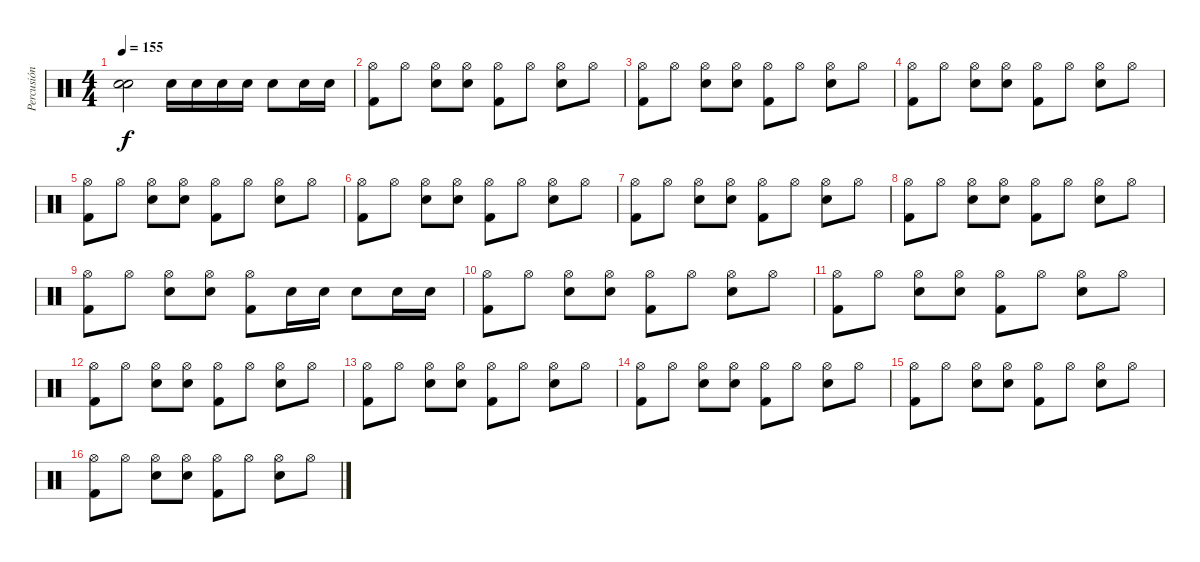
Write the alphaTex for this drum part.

\track ("Percusión" "Percusión") {instrument percussion}
\staff {score}
\articulation defaults
\ts (4 4)
\tempo 155
\clef neutral
\ks c
("Snare (hit)"{t} "Snare (hit)"{t}).2{dy f} "Electric Snare (hit)".16 "Electric Snare (hit)".16 "Electric Snare (hit)".16 "Electric Snare (hit)".16 "Electric Snare (hit)".8 "Electric Snare (hit)".16 "Electric Snare (hit)".16 |
("Hi-Hat (open)" "Kick (hit) 2").8 "Hi-Hat (open)".8 ("Hi-Hat (open)" "Electric Snare (hit)").8 ("Hi-Hat (open)" "Electric Snare (hit)").8 ("Hi-Hat (open)" "Kick (hit) 2").8 "Hi-Hat (open)".8 ("Hi-Hat (open)" "Electric Snare (hit)").8 "Hi-Hat (open)".8 |
("Hi-Hat (open)" "Kick (hit) 2").8 "Hi-Hat (open)".8 ("Hi-Hat (open)" "Electric Snare (hit)").8 ("Hi-Hat (open)" "Electric Snare (hit)").8 ("Hi-Hat (open)" "Kick (hit) 2").8 "Hi-Hat (open)".8 ("Hi-Hat (open)" "Electric Snare (hit)").8 "Hi-Hat (open)".8 |
("Hi-Hat (open)" "Kick (hit) 2").8 "Hi-Hat (open)".8 ("Hi-Hat (open)" "Electric Snare (hit)").8 ("Hi-Hat (open)" "Electric Snare (hit)").8 ("Hi-Hat (open)" "Kick (hit) 2").8 "Hi-Hat (open)".8 ("Hi-Hat (open)" "Electric Snare (hit)").8 "Hi-Hat (open)".8 |
("Hi-Hat (open)" "Kick (hit) 2").8 "Hi-Hat (open)".8 ("Hi-Hat (open)" "Electric Snare (hit)").8 ("Hi-Hat (open)" "Electric Snare (hit)").8 ("Hi-Hat (open)" "Kick (hit) 2").8 "Hi-Hat (open)".8 ("Hi-Hat (open)" "Electric Snare (hit)").8 "Hi-Hat (open)".8 |
("Hi-Hat (open)" "Kick (hit) 2").8 "Hi-Hat (open)".8 ("Hi-Hat (open)" "Electric Snare (hit)").8 ("Hi-Hat (open)" "Electric Snare (hit)").8 ("Hi-Hat (open)" "Kick (hit) 2").8 "Hi-Hat (open)".8 ("Hi-Hat (open)" "Electric Snare (hit)").8 "Hi-Hat (open)".8 |
("Hi-Hat (open)" "Kick (hit) 2").8 "Hi-Hat (open)".8 ("Hi-Hat (open)" "Electric Snare (hit)").8 ("Hi-Hat (open)" "Electric Snare (hit)").8 ("Hi-Hat (open)" "Kick (hit) 2").8 "Hi-Hat (open)".8 ("Hi-Hat (open)" "Electric Snare (hit)").8 "Hi-Hat (open)".8 |
("Hi-Hat (open)" "Kick (hit) 2").8 "Hi-Hat (open)".8 ("Hi-Hat (open)" "Electric Snare (hit)").8 ("Hi-Hat (open)" "Electric Snare (hit)").8 ("Hi-Hat (open)" "Kick (hit) 2").8 "Hi-Hat (open)".8 ("Hi-Hat (open)" "Electric Snare (hit)").8 "Hi-Hat (open)".8 |
("Hi-Hat (open)" "Kick (hit) 2").8 "Hi-Hat (open)".8 ("Hi-Hat (open)" "Electric Snare (hit)").8 ("Hi-Hat (open)" "Electric Snare (hit)").8 ("Hi-Hat (open)" "Kick (hit) 2").8 "Electric Snare (hit)".16 "Electric Snare (hit)".16 "Electric Snare (hit)".8 "Electric Snare (hit)".16 "Electric Snare (hit)".16 |
("Hi-Hat (open)" "Kick (hit) 2").8 "Hi-Hat (open)".8 ("Hi-Hat (open)" "Electric Snare (hit)").8 ("Hi-Hat (open)" "Electric Snare (hit)").8 ("Hi-Hat (open)" "Kick (hit) 2").8 "Hi-Hat (open)".8 ("Hi-Hat (open)" "Electric Snare (hit)").8 "Hi-Hat (open)".8 |
("Hi-Hat (open)" "Kick (hit) 2").8 "Hi-Hat (open)".8 ("Hi-Hat (open)" "Electric Snare (hit)").8 ("Hi-Hat (open)" "Electric Snare (hit)").8 ("Hi-Hat (open)" "Kick (hit) 2").8 "Hi-Hat (open)".8 ("Hi-Hat (open)" "Electric Snare (hit)").8 "Hi-Hat (open)".8 |
("Hi-Hat (open)" "Kick (hit) 2").8 "Hi-Hat (open)".8 ("Hi-Hat (open)" "Electric Snare (hit)").8 ("Hi-Hat (open)" "Electric Snare (hit)").8 ("Hi-Hat (open)" "Kick (hit) 2").8 "Hi-Hat (open)".8 ("Hi-Hat (open)" "Electric Snare (hit)").8 "Hi-Hat (open)".8 |
("Hi-Hat (open)" "Kick (hit) 2").8 "Hi-Hat (open)".8 ("Hi-Hat (open)" "Electric Snare (hit)").8 ("Hi-Hat (open)" "Electric Snare (hit)").8 ("Hi-Hat (open)" "Kick (hit) 2").8 "Hi-Hat (open)".8 ("Hi-Hat (open)" "Electric Snare (hit)").8 "Hi-Hat (open)".8 |
("Hi-Hat (open)" "Kick (hit) 2").8 "Hi-Hat (open)".8 ("Hi-Hat (open)" "Electric Snare (hit)").8 ("Hi-Hat (open)" "Electric Snare (hit)").8 ("Hi-Hat (open)" "Kick (hit) 2").8 "Hi-Hat (open)".8 ("Hi-Hat (open)" "Electric Snare (hit)").8 "Hi-Hat (open)".8 |
("Hi-Hat (open)" "Kick (hit) 2").8 "Hi-Hat (open)".8 ("Hi-Hat (open)" "Electric Snare (hit)").8 ("Hi-Hat (open)" "Electric Snare (hit)").8 ("Hi-Hat (open)" "Kick (hit) 2").8 "Hi-Hat (open)".8 ("Hi-Hat (open)" "Electric Snare (hit)").8 "Hi-Hat (open)".8 |
("Hi-Hat (open)" "Kick (hit) 2").8 "Hi-Hat (open)".8 ("Hi-Hat (open)" "Electric Snare (hit)").8 ("Hi-Hat (open)" "Electric Snare (hit)").8 ("Hi-Hat (open)" "Kick (hit) 2").8 "Hi-Hat (open)".8 ("Hi-Hat (open)" "Electric Snare (hit)").8 "Hi-Hat (open)".8
